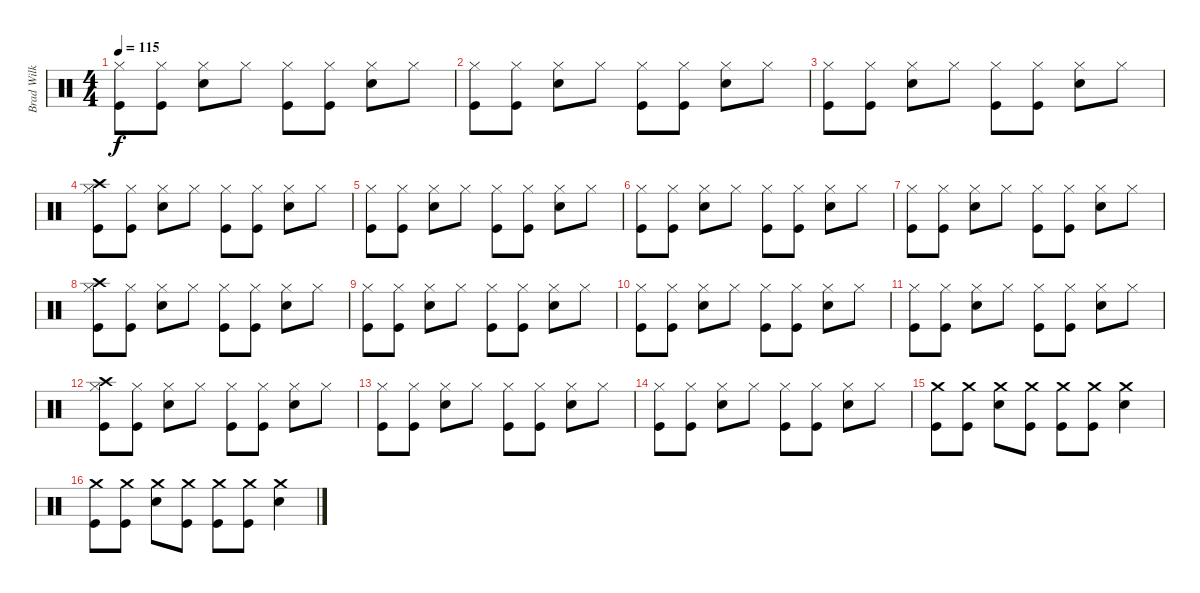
\track ("Brad Wilk - Drums" "Brad Wilk ") {instrument percussion}
\staff {score}
\articulation defaults
\ts (4 4)
\tempo 115
\clef neutral
\ks c
("Hi-Hat (closed)" "Kick (hit)").8{dy f} ("Hi-Hat (closed)" "Kick (hit)").8 ("Snare (hit) 2" "Hi-Hat (closed)").8 "Hi-Hat (closed)".8 ("Hi-Hat (closed)" "Kick (hit)").8 ("Hi-Hat (closed)" "Kick (hit)").8 ("Snare (hit) 2" "Hi-Hat (closed)").8 "Hi-Hat (closed)".8 |
("Hi-Hat (closed)" "Kick (hit)").8 ("Hi-Hat (closed)" "Kick (hit)").8 ("Snare (hit) 2" "Hi-Hat (closed)").8 "Hi-Hat (closed)".8 ("Hi-Hat (closed)" "Kick (hit)").8 ("Hi-Hat (closed)" "Kick (hit)").8 ("Snare (hit) 2" "Hi-Hat (closed)").8 "Hi-Hat (closed)".8 |
("Hi-Hat (closed)" "Kick (hit)").8 ("Hi-Hat (closed)" "Kick (hit)").8 ("Snare (hit) 2" "Hi-Hat (closed)").8 "Hi-Hat (closed)".8 ("Hi-Hat (closed)" "Kick (hit)").8 ("Hi-Hat (closed)" "Kick (hit)").8 ("Snare (hit) 2" "Hi-Hat (closed)").8 "Hi-Hat (closed)".8 |
("Crash high (hit)" "Hi-Hat (closed)" "Kick (hit)").8 ("Hi-Hat (closed)" "Kick (hit)").8 ("Snare (hit) 2" "Hi-Hat (closed)").8 "Hi-Hat (closed)".8 ("Hi-Hat (closed)" "Kick (hit)").8 ("Hi-Hat (closed)" "Kick (hit)").8 ("Snare (hit) 2" "Hi-Hat (closed)").8 "Hi-Hat (closed)".8 |
("Hi-Hat (closed)" "Kick (hit)").8 ("Hi-Hat (closed)" "Kick (hit)").8 ("Snare (hit) 2" "Hi-Hat (closed)").8 "Hi-Hat (closed)".8 ("Hi-Hat (closed)" "Kick (hit)").8 ("Hi-Hat (closed)" "Kick (hit)").8 ("Snare (hit) 2" "Hi-Hat (closed)").8 "Hi-Hat (closed)".8 |
("Hi-Hat (closed)" "Kick (hit)").8 ("Hi-Hat (closed)" "Kick (hit)").8 ("Snare (hit) 2" "Hi-Hat (closed)").8 "Hi-Hat (closed)".8 ("Hi-Hat (closed)" "Kick (hit)").8 ("Hi-Hat (closed)" "Kick (hit)").8 ("Snare (hit) 2" "Hi-Hat (closed)").8 "Hi-Hat (closed)".8 |
("Hi-Hat (closed)" "Kick (hit)").8 ("Hi-Hat (closed)" "Kick (hit)").8 ("Snare (hit) 2" "Hi-Hat (closed)").8 "Hi-Hat (closed)".8 ("Hi-Hat (closed)" "Kick (hit)").8 ("Hi-Hat (closed)" "Kick (hit)").8 ("Snare (hit) 2" "Hi-Hat (closed)").8 "Hi-Hat (closed)".8 |
("Crash high (hit)" "Hi-Hat (closed)" "Kick (hit)").8 ("Hi-Hat (closed)" "Kick (hit)").8 ("Snare (hit) 2" "Hi-Hat (closed)").8 "Hi-Hat (closed)".8 ("Hi-Hat (closed)" "Kick (hit)").8 ("Hi-Hat (closed)" "Kick (hit)").8 ("Snare (hit) 2" "Hi-Hat (closed)").8 "Hi-Hat (closed)".8 |
("Hi-Hat (closed)" "Kick (hit)").8 ("Hi-Hat (closed)" "Kick (hit)").8 ("Snare (hit) 2" "Hi-Hat (closed)").8 "Hi-Hat (closed)".8 ("Hi-Hat (closed)" "Kick (hit)").8 ("Hi-Hat (closed)" "Kick (hit)").8 ("Snare (hit) 2" "Hi-Hat (closed)").8 "Hi-Hat (closed)".8 |
("Hi-Hat (closed)" "Kick (hit)").8 ("Hi-Hat (closed)" "Kick (hit)").8 ("Snare (hit) 2" "Hi-Hat (closed)").8 "Hi-Hat (closed)".8 ("Hi-Hat (closed)" "Kick (hit)").8 ("Hi-Hat (closed)" "Kick (hit)").8 ("Snare (hit) 2" "Hi-Hat (closed)").8 "Hi-Hat (closed)".8 |
("Hi-Hat (closed)" "Kick (hit)").8 ("Hi-Hat (closed)" "Kick (hit)").8 ("Snare (hit) 2" "Hi-Hat (closed)").8 "Hi-Hat (closed)".8 ("Hi-Hat (closed)" "Kick (hit)").8 ("Hi-Hat (closed)" "Kick (hit)").8 ("Snare (hit) 2" "Hi-Hat (closed)").8 "Hi-Hat (closed)".8 |
("Crash high (hit)" "Hi-Hat (closed)" "Kick (hit)").8 ("Hi-Hat (closed)" "Kick (hit)").8 ("Snare (hit) 2" "Hi-Hat (closed)").8 "Hi-Hat (closed)".8 ("Hi-Hat (closed)" "Kick (hit)").8 ("Hi-Hat (closed)" "Kick (hit)").8 ("Snare (hit) 2" "Hi-Hat (closed)").8 "Hi-Hat (closed)".8 |
("Hi-Hat (closed)" "Kick (hit)").8 ("Hi-Hat (closed)" "Kick (hit)").8 ("Snare (hit) 2" "Hi-Hat (closed)").8 "Hi-Hat (closed)".8 ("Hi-Hat (closed)" "Kick (hit)").8 ("Hi-Hat (closed)" "Kick (hit)").8 ("Snare (hit) 2" "Hi-Hat (closed)").8 "Hi-Hat (closed)".8 |
("Hi-Hat (closed)" "Kick (hit)").8 ("Hi-Hat (closed)" "Kick (hit)").8 ("Snare (hit) 2" "Hi-Hat (closed)").8 "Hi-Hat (closed)".8 ("Hi-Hat (closed)" "Kick (hit)").8 ("Hi-Hat (closed)" "Kick (hit)").8 ("Snare (hit) 2" "Hi-Hat (closed)").8 "Hi-Hat (closed)".8 |
("Crash medium (hit)" "Kick (hit)").8 ("Crash medium (hit)" "Kick (hit)").8 ("Snare (hit) 2" "Crash medium (hit)").8 ("Crash medium (hit)" "Kick (hit)").8 ("Crash medium (hit)" "Kick (hit)").8 ("Crash medium (hit)" "Kick (hit)").8 ("Snare (hit) 2" "Crash medium (hit)").4 |
("Crash medium (hit)" "Kick (hit)").8 ("Crash medium (hit)" "Kick (hit)").8 ("Snare (hit) 2" "Crash medium (hit)").8 ("Crash medium (hit)" "Kick (hit)").8 ("Crash medium (hit)" "Kick (hit)").8 ("Crash medium (hit)" "Kick (hit)").8 ("Snare (hit) 2" "Crash medium (hit)").4
